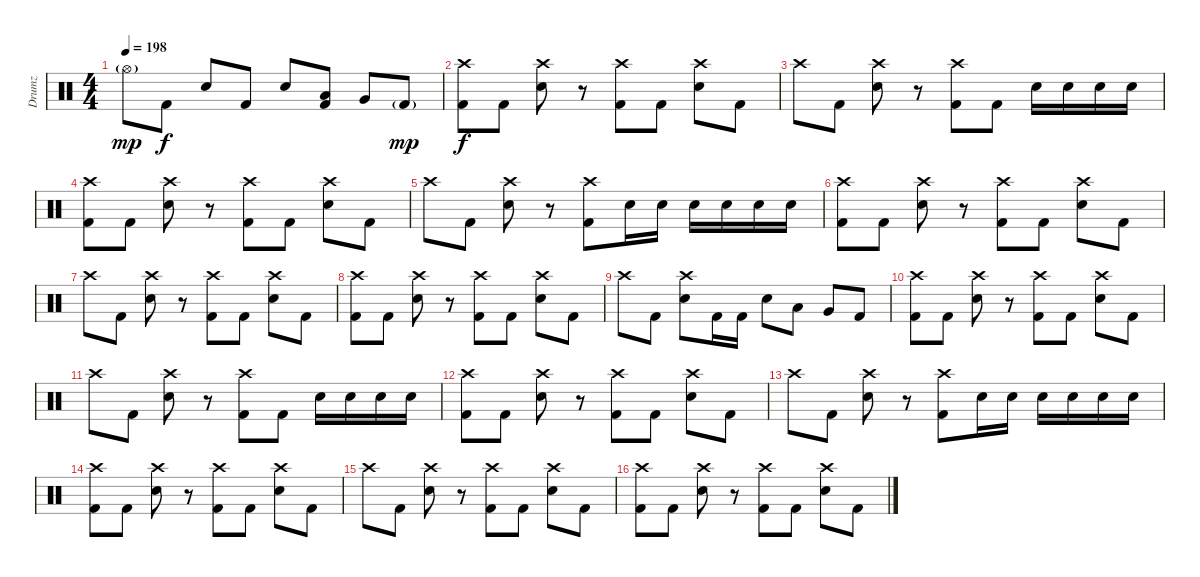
\track ("Drumz" "Drumz") {instrument percussion}
\staff {score}
\articulation defaults
\ts (4 4)
\tempo 198
\clef neutral
\ks c "Hi-Hat (open)"{g}.8{dy mp} "Kick (hit) 2".8{dy f} "Electric Snare (hit)".8 "Kick (hit) 2".8 "Electric Snare (hit)".8
("Low Tom (hit)" "Kick (hit) 2").8 "Very Low Tom (hit)".8 "Kick (hit) 2"{g}.8{dy mp} |
("Crash high (hit)" "Kick (hit) 2").8{dy f} "Kick (hit) 2".8 ("Crash high (hit)" "Electric Snare (hit)").8 r.8 ("Crash high (hit)" "Kick (hit) 2").8 "Kick (hit) 2".8 ("Crash high (hit)" "Electric Snare (hit)").8 "Kick (hit) 2".8 |
"Crash high (hit)".8 "Kick (hit) 2".8 ("Crash high (hit)" "Electric Snare (hit)").8 r.8 ("Crash high (hit)" "Kick (hit) 2").8 "Kick (hit) 2".8 "Electric Snare (hit)".16 "Electric Snare (hit)".16 "Electric Snare (hit)".16 "Electric Snare (hit)".16 |
("Crash high (hit)" "Kick (hit) 2").8 "Kick (hit) 2".8 ("Crash high (hit)" "Electric Snare (hit)").8 r.8 ("Crash high (hit)" "Kick (hit) 2").8 "Kick (hit) 2".8 ("Crash high (hit)" "Electric Snare (hit)").8 "Kick (hit) 2".8 |
"Crash high (hit)".8 "Kick (hit) 2".8 ("Crash high (hit)" "Electric Snare (hit)").8 r.8 ("Crash high (hit)" "Kick (hit) 2").8 "Electric Snare (hit)".16 "Electric Snare (hit)".16 "Electric Snare (hit)".16 "Electric Snare (hit)".16 "Electric Snare (hit)".16 "Electric Snare (hit)".16 |
("Crash high (hit)" "Kick (hit) 2").8 "Kick (hit) 2".8 ("Crash high (hit)" "Electric Snare (hit)").8 r.8 ("Crash high (hit)" "Kick (hit) 2").8 "Kick (hit) 2".8 ("Crash high (hit)" "Electric Snare (hit)").8 "Kick (hit) 2".8 |
"Crash high (hit)".8 "Kick (hit) 2".8 ("Crash high (hit)" "Electric Snare (hit)").8 r.8 ("Crash high (hit)" "Kick (hit) 2").8 "Kick (hit) 2".8 ("Crash high (hit)" "Electric Snare (hit)").8 "Kick (hit) 2".8 |
("Crash high (hit)" "Kick (hit) 2").8 "Kick (hit) 2".8 ("Crash high (hit)" "Electric Snare (hit)").8 r.8 ("Crash high (hit)" "Kick (hit) 2").8 "Kick (hit) 2".8 ("Crash high (hit)" "Electric Snare (hit)").8 "Kick (hit) 2".8 |
"Crash high (hit)".8 "Kick (hit) 2".8 ("Crash high (hit)" "Electric Snare (hit)").8 "Kick (hit) 2".16 "Kick (hit) 2".16 "Electric Snare (hit)".8 "Low Tom (hit)".8 "Very Low Tom (hit)".8 "Kick (hit) 2".8 |
("Crash high (hit)" "Kick (hit) 2").8 "Kick (hit) 2".8 ("Crash high (hit)" "Electric Snare (hit)").8 r.8 ("Crash high (hit)" "Kick (hit) 2").8 "Kick (hit) 2".8 ("Crash high (hit)" "Electric Snare (hit)").8 "Kick (hit) 2".8 |
"Crash high (hit)".8 "Kick (hit) 2".8 ("Crash high (hit)" "Electric Snare (hit)").8 r.8 ("Crash high (hit)" "Kick (hit) 2").8 "Kick (hit) 2".8 "Electric Snare (hit)".16 "Electric Snare (hit)".16 "Electric Snare (hit)".16 "Electric Snare (hit)".16 |
("Crash high (hit)" "Kick (hit) 2").8 "Kick (hit) 2".8 ("Crash high (hit)" "Electric Snare (hit)").8 r.8 ("Crash high (hit)" "Kick (hit) 2").8 "Kick (hit) 2".8 ("Crash high (hit)" "Electric Snare (hit)").8 "Kick (hit) 2".8 |
"Crash high (hit)".8 "Kick (hit) 2".8 ("Crash high (hit)" "Electric Snare (hit)").8 r.8 ("Crash high (hit)" "Kick (hit) 2").8 "Electric Snare (hit)".16 "Electric Snare (hit)".16 "Electric Snare (hit)".16 "Electric Snare (hit)".16 "Electric Snare (hit)".16 "Electric Snare (hit)".16 |
("Crash high (hit)" "Kick (hit) 2").8 "Kick (hit) 2".8 ("Crash high (hit)" "Electric Snare (hit)").8 r.8 ("Crash high (hit)" "Kick (hit) 2").8 "Kick (hit) 2".8 ("Crash high (hit)" "Electric Snare (hit)").8 "Kick (hit) 2".8 |
"Crash high (hit)".8 "Kick (hit) 2".8 ("Crash high (hit)" "Electric Snare (hit)").8 r.8 ("Crash high (hit)" "Kick (hit) 2").8 "Kick (hit) 2".8 ("Crash high (hit)" "Electric Snare (hit)").8 "Kick (hit) 2".8 |
("Crash high (hit)" "Kick (hit) 2").8 "Kick (hit) 2".8 ("Crash high (hit)" "Electric Snare (hit)").8 r.8 ("Crash high (hit)" "Kick (hit) 2").8 "Kick (hit) 2".8 ("Crash high (hit)" "Electric Snare (hit)").8 "Kick (hit) 2".8
